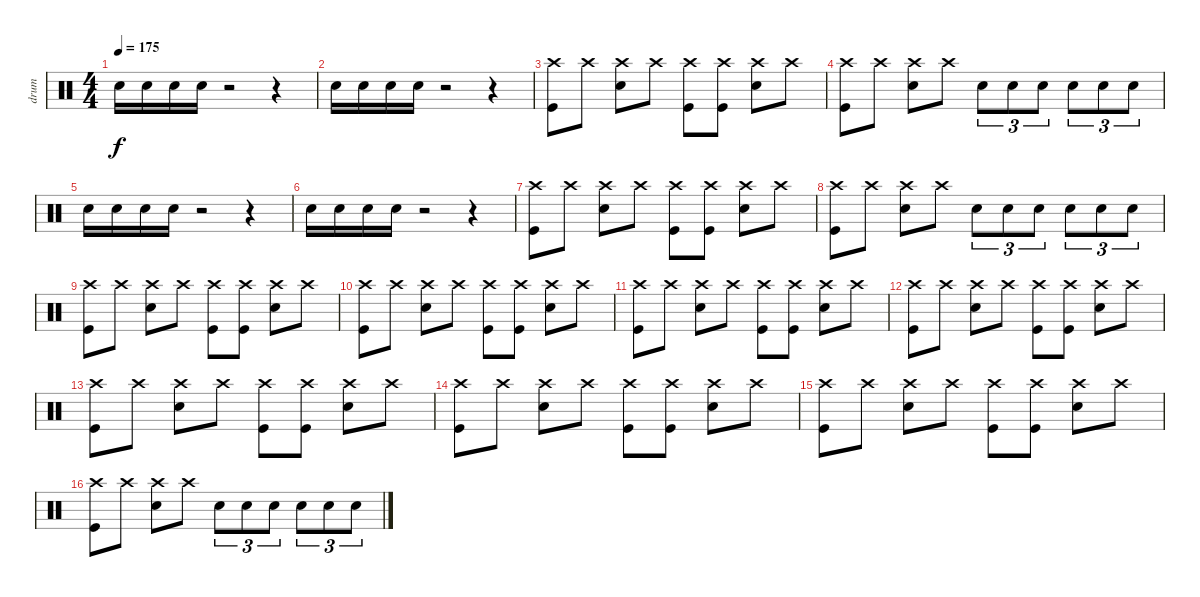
\track ("drum" "drum") {instrument percussion}
\staff {score}
\articulation defaults
\ts (4 4)
\tempo 175
\clef neutral
\ks c "Snare (hit) 2".16{dy f} "Snare (hit) 2".16 "Snare (hit) 2".16 "Snare (hit) 2".16
r.2 r.4 |
"Snare (hit) 2".16 "Snare (hit) 2".16 "Snare (hit) 2".16 "Snare (hit) 2".16 r.2 r.4 |
("Crash high (hit)" "Kick (hit)").8 "Crash high (hit)".8 ("Crash high (hit)" "Snare (hit) 2").8 "Crash high (hit)".8 ("Crash high (hit)" "Kick (hit)").8 ("Crash high (hit)" "Kick (hit)").8 ("Crash high (hit)" "Snare (hit) 2").8 "Crash high (hit)".8 |
("Crash high (hit)" "Kick (hit)").8 "Crash high (hit)".8 ("Crash high (hit)" "Snare (hit) 2").8 "Crash high (hit)".8 "Snare (hit) 2".8{tu (3 2)} "Snare (hit) 2".8{tu (3 2)} "Snare (hit) 2".8{tu (3 2)} "Snare (hit) 2".8{tu (3 2)} "Snare (hit) 2".8{tu (3 2)} "Snare (hit) 2".8{tu (3 2)} |
"Snare (hit) 2".16 "Snare (hit) 2".16 "Snare (hit) 2".16 "Snare (hit) 2".16 r.2 r.4 |
"Snare (hit) 2".16 "Snare (hit) 2".16 "Snare (hit) 2".16 "Snare (hit) 2".16 r.2 r.4 |
("Crash high (hit)" "Kick (hit)").8 "Crash high (hit)".8 ("Crash high (hit)" "Snare (hit) 2").8 "Crash high (hit)".8 ("Crash high (hit)" "Kick (hit)").8 ("Crash high (hit)" "Kick (hit)").8 ("Crash high (hit)" "Snare (hit) 2").8 "Crash high (hit)".8 |
("Crash high (hit)" "Kick (hit)").8 "Crash high (hit)".8 ("Crash high (hit)" "Snare (hit) 2").8 "Crash high (hit)".8 "Snare (hit) 2".8{tu (3 2)} "Snare (hit) 2".8{tu (3 2)} "Snare (hit) 2".8{tu (3 2)} "Snare (hit) 2".8{tu (3 2)} "Snare (hit) 2".8{tu (3 2)} "Snare (hit) 2".8{tu (3 2)} |
("Crash high (hit)" "Kick (hit)").8 "Crash high (hit)".8 ("Crash high (hit)" "Snare (hit) 2").8 "Crash high (hit)".8 ("Crash high (hit)" "Kick (hit)").8 ("Crash high (hit)" "Kick (hit)").8 ("Crash high (hit)" "Snare (hit) 2").8 "Crash high (hit)".8 |
("Crash high (hit)" "Kick (hit)").8 "Crash high (hit)".8 ("Crash high (hit)" "Snare (hit) 2").8 "Crash high (hit)".8 ("Crash high (hit)" "Kick (hit)").8 ("Crash high (hit)" "Kick (hit)").8 ("Crash high (hit)" "Snare (hit) 2").8 "Crash high (hit)".8 |
("Crash high (hit)" "Kick (hit)").8 "Crash high (hit)".8 ("Crash high (hit)" "Snare (hit) 2").8 "Crash high (hit)".8 ("Crash high (hit)" "Kick (hit)").8 ("Crash high (hit)" "Kick (hit)").8 ("Crash high (hit)" "Snare (hit) 2").8 "Crash high (hit)".8 |
("Crash high (hit)" "Kick (hit)").8 "Crash high (hit)".8 ("Crash high (hit)" "Snare (hit) 2").8 "Crash high (hit)".8 ("Crash high (hit)" "Kick (hit)").8 ("Crash high (hit)" "Kick (hit)").8 ("Crash high (hit)" "Snare (hit) 2").8 "Crash high (hit)".8 |
("Crash high (hit)" "Kick (hit)").8 "Crash high (hit)".8 ("Crash high (hit)" "Snare (hit) 2").8 "Crash high (hit)".8 ("Crash high (hit)" "Kick (hit)").8 ("Crash high (hit)" "Kick (hit)").8 ("Crash high (hit)" "Snare (hit) 2").8 "Crash high (hit)".8 |
("Crash high (hit)" "Kick (hit)").8 "Crash high (hit)".8 ("Crash high (hit)" "Snare (hit) 2").8 "Crash high (hit)".8 ("Crash high (hit)" "Kick (hit)").8 ("Crash high (hit)" "Kick (hit)").8 ("Crash high (hit)" "Snare (hit) 2").8 "Crash high (hit)".8 |
("Crash high (hit)" "Kick (hit)").8 "Crash high (hit)".8 ("Crash high (hit)" "Snare (hit) 2").8 "Crash high (hit)".8 ("Crash high (hit)" "Kick (hit)").8 ("Crash high (hit)" "Kick (hit)").8 ("Crash high (hit)" "Snare (hit) 2").8 "Crash high (hit)".8 |
("Crash high (hit)" "Kick (hit)").8 "Crash high (hit)".8 ("Crash high (hit)" "Snare (hit) 2").8 "Crash high (hit)".8 "Snare (hit) 2".8{tu (3 2)} "Snare (hit) 2".8{tu (3 2)} "Snare (hit) 2".8{tu (3 2)} "Snare (hit) 2".8{tu (3 2)} "Snare (hit) 2".8{tu (3 2)} "Snare (hit) 2".8{tu (3 2)}
